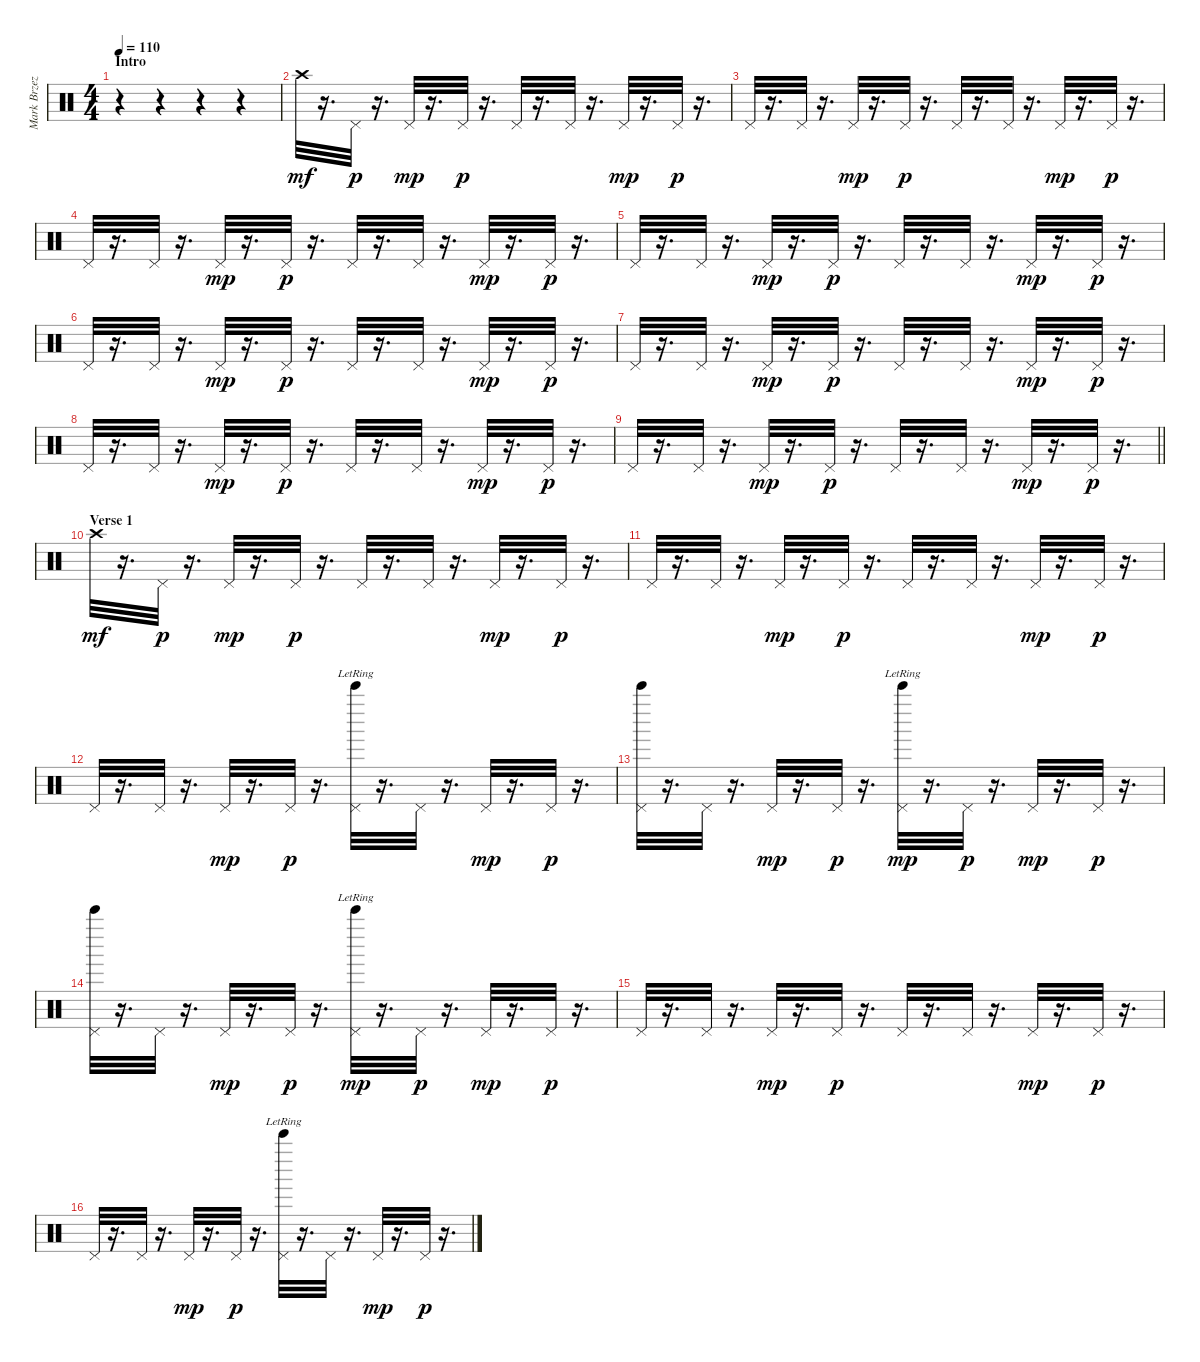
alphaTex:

\track ("Mark Brzezicki - Cymbal (Crash, Open & C" "Mark Brzez") {instrument percussion}
\staff {score}
\articulation defaults
\ts (4 4)
\section ("" "Intro")
\tempo 110
\clef neutral
\ks c
r.4{dy mf} r.4 r.4 r.4 |
"Crash high (hit)".32 r.16{d} "Pedal Hi-Hat (hit)".32{dy p} r.16{d} "Pedal Hi-Hat (hit)".32{dy mp} r.16{d} "Pedal Hi-Hat (hit)".32{dy p} r.16{d} "Pedal Hi-Hat (hit)".32 r.16{d} "Pedal Hi-Hat (hit)".32 r.16{d} "Pedal Hi-Hat (hit)".32{dy mp} r.16{d} "Pedal Hi-Hat (hit)".32{dy p} r.16{d} |
"Pedal Hi-Hat (hit)".32 r.16{d} "Pedal Hi-Hat (hit)".32 r.16{d} "Pedal Hi-Hat (hit)".32{dy mp} r.16{d} "Pedal Hi-Hat (hit)".32{dy p} r.16{d} "Pedal Hi-Hat (hit)".32 r.16{d} "Pedal Hi-Hat (hit)".32 r.16{d} "Pedal Hi-Hat (hit)".32{dy mp} r.16{d} "Pedal Hi-Hat (hit)".32{dy p} r.16{d} |
"Pedal Hi-Hat (hit)".32 r.16{d} "Pedal Hi-Hat (hit)".32 r.16{d} "Pedal Hi-Hat (hit)".32{dy mp} r.16{d} "Pedal Hi-Hat (hit)".32{dy p} r.16{d} "Pedal Hi-Hat (hit)".32 r.16{d} "Pedal Hi-Hat (hit)".32 r.16{d} "Pedal Hi-Hat (hit)".32{dy mp} r.16{d} "Pedal Hi-Hat (hit)".32{dy p} r.16{d} |
"Pedal Hi-Hat (hit)".32 r.16{d} "Pedal Hi-Hat (hit)".32 r.16{d} "Pedal Hi-Hat (hit)".32{dy mp} r.16{d} "Pedal Hi-Hat (hit)".32{dy p} r.16{d} "Pedal Hi-Hat (hit)".32 r.16{d} "Pedal Hi-Hat (hit)".32 r.16{d} "Pedal Hi-Hat (hit)".32{dy mp} r.16{d} "Pedal Hi-Hat (hit)".32{dy p} r.16{d} |
"Pedal Hi-Hat (hit)".32 r.16{d} "Pedal Hi-Hat (hit)".32 r.16{d} "Pedal Hi-Hat (hit)".32{dy mp} r.16{d} "Pedal Hi-Hat (hit)".32{dy p} r.16{d} "Pedal Hi-Hat (hit)".32 r.16{d} "Pedal Hi-Hat (hit)".32 r.16{d} "Pedal Hi-Hat (hit)".32{dy mp} r.16{d} "Pedal Hi-Hat (hit)".32{dy p} r.16{d} |
"Pedal Hi-Hat (hit)".32 r.16{d} "Pedal Hi-Hat (hit)".32 r.16{d} "Pedal Hi-Hat (hit)".32{dy mp} r.16{d} "Pedal Hi-Hat (hit)".32{dy p} r.16{d} "Pedal Hi-Hat (hit)".32 r.16{d} "Pedal Hi-Hat (hit)".32 r.16{d} "Pedal Hi-Hat (hit)".32{dy mp} r.16{d} "Pedal Hi-Hat (hit)".32{dy p} r.16{d} |
"Pedal Hi-Hat (hit)".32 r.16{d} "Pedal Hi-Hat (hit)".32 r.16{d} "Pedal Hi-Hat (hit)".32{dy mp} r.16{d} "Pedal Hi-Hat (hit)".32{dy p} r.16{d} "Pedal Hi-Hat (hit)".32 r.16{d} "Pedal Hi-Hat (hit)".32 r.16{d} "Pedal Hi-Hat (hit)".32{dy mp} r.16{d} "Pedal Hi-Hat (hit)".32{dy p} r.16{d} |
\barLineRight lightlight "Pedal Hi-Hat (hit)".32
r.16{d} "Pedal Hi-Hat (hit)".32 r.16{d} "Pedal Hi-Hat (hit)".32{dy mp} r.16{d} "Pedal Hi-Hat (hit)".32{dy p} r.16{d} "Pedal Hi-Hat (hit)".32 r.16{d} "Pedal Hi-Hat (hit)".32 r.16{d} "Pedal Hi-Hat (hit)".32{dy mp} r.16{d} "Pedal Hi-Hat (hit)".32{dy p} r.16{d} |
\section ("" "Verse 1")
"Crash high (hit)".32{dy mf} r.16{d} "Pedal Hi-Hat (hit)".32{dy p} r.16{d} "Pedal Hi-Hat (hit)".32{dy mp} r.16{d} "Pedal Hi-Hat (hit)".32{dy p} r.16{d} "Pedal Hi-Hat (hit)".32 r.16{d} "Pedal Hi-Hat (hit)".32 r.16{d} "Pedal Hi-Hat (hit)".32{dy mp} r.16{d} "Pedal Hi-Hat (hit)".32{dy p} r.16{d} |
"Pedal Hi-Hat (hit)".32 r.16{d} "Pedal Hi-Hat (hit)".32 r.16{d} "Pedal Hi-Hat (hit)".32{dy mp} r.16{d} "Pedal Hi-Hat (hit)".32{dy p} r.16{d} "Pedal Hi-Hat (hit)".32 r.16{d} "Pedal Hi-Hat (hit)".32 r.16{d} "Pedal Hi-Hat (hit)".32{dy mp} r.16{d} "Pedal Hi-Hat (hit)".32{dy p} r.16{d} |
"Pedal Hi-Hat (hit)".32 r.16{d} "Pedal Hi-Hat (hit)".32 r.16{d} "Pedal Hi-Hat (hit)".32{dy mp} r.16{d} "Pedal Hi-Hat (hit)".32{dy p} r.16{d} ("Pedal Hi-Hat (hit)" "Bell Tree (hit)"{lr}).32 r.16{d} "Pedal Hi-Hat (hit)".32 r.16{d} "Pedal Hi-Hat (hit)".32{dy mp} r.16{d} "Pedal Hi-Hat (hit)".32{dy p} r.16{d} |
("Pedal Hi-Hat (hit)" "Bell Tree (hit)").32 r.16{d} "Pedal Hi-Hat (hit)".32 r.16{d} "Pedal Hi-Hat (hit)".32{dy mp} r.16{d} "Pedal Hi-Hat (hit)".32{dy p} r.16{d} ("Pedal Hi-Hat (hit)" "Bell Tree (hit)"{lr}).32{dy mp} r.16{d} "Pedal Hi-Hat (hit)".32{dy p} r.16{d} "Pedal Hi-Hat (hit)".32{dy mp} r.16{d} "Pedal Hi-Hat (hit)".32{dy p} r.16{d} |
("Pedal Hi-Hat (hit)" "Bell Tree (hit)").32 r.16{d} "Pedal Hi-Hat (hit)".32 r.16{d} "Pedal Hi-Hat (hit)".32{dy mp} r.16{d} "Pedal Hi-Hat (hit)".32{dy p} r.16{d} ("Pedal Hi-Hat (hit)" "Bell Tree (hit)"{lr}).32{dy mp} r.16{d} "Pedal Hi-Hat (hit)".32{dy p} r.16{d} "Pedal Hi-Hat (hit)".32{dy mp} r.16{d} "Pedal Hi-Hat (hit)".32{dy p} r.16{d} |
"Pedal Hi-Hat (hit)".32 r.16{d} "Pedal Hi-Hat (hit)".32 r.16{d} "Pedal Hi-Hat (hit)".32{dy mp} r.16{d} "Pedal Hi-Hat (hit)".32{dy p} r.16{d} "Pedal Hi-Hat (hit)".32 r.16{d} "Pedal Hi-Hat (hit)".32 r.16{d} "Pedal Hi-Hat (hit)".32{dy mp} r.16{d} "Pedal Hi-Hat (hit)".32{dy p} r.16{d} |
"Pedal Hi-Hat (hit)".32 r.16{d} "Pedal Hi-Hat (hit)".32 r.16{d} "Pedal Hi-Hat (hit)".32{dy mp} r.16{d} "Pedal Hi-Hat (hit)".32{dy p} r.16{d} ("Pedal Hi-Hat (hit)" "Bell Tree (hit)"{lr}).32 r.16{d} "Pedal Hi-Hat (hit)".32 r.16{d} "Pedal Hi-Hat (hit)".32{dy mp} r.16{d} "Pedal Hi-Hat (hit)".32{dy p} r.16{d}
